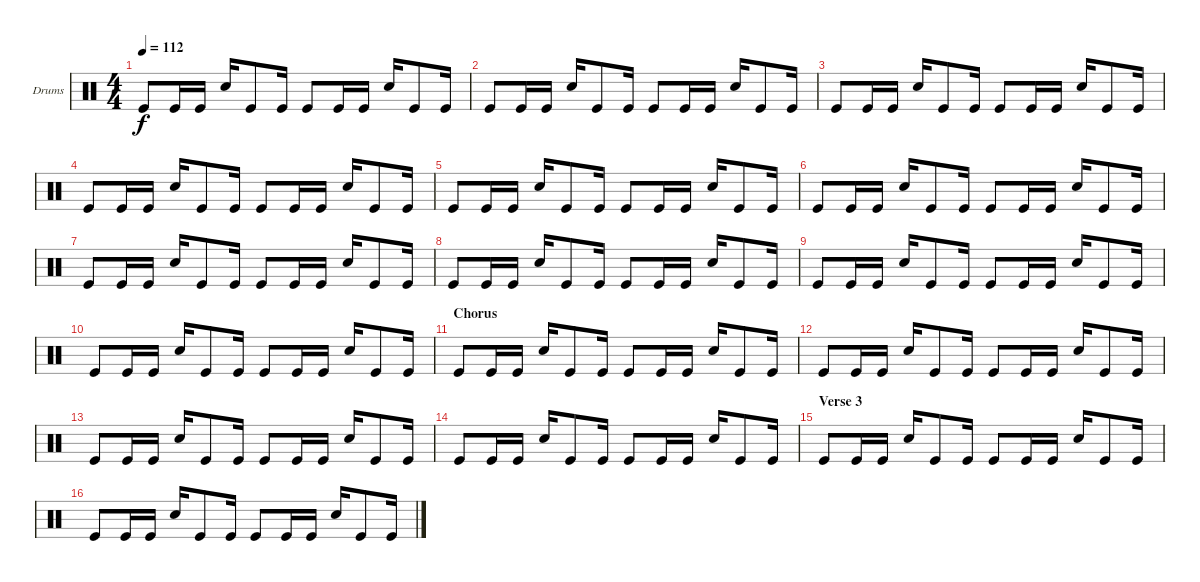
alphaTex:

\bracketExtendMode groupsimilarinstruments
\firstSystemTrackNameOrientation horizontal
\otherSystemsTrackNameOrientation horizontal
\track ("Drumkit" "Drums") {instrument percussion}
\staff {score}
\articulation defaults
\ts (4 4)
\tempo 112
\clef neutral
\ks c "Kick (hit)".8{dy f} "Kick (hit)".16 "Kick (hit)".16 "Snare (hit) 2".16 "Kick (hit)".8 "Kick (hit)".16 "Kick (hit)".8 "Kick (hit)".16 "Kick (hit)".16 "Snare (hit) 2".16 "Kick (hit)".8 "Kick (hit)".16
|
"Kick (hit)".8 "Kick (hit)".16 "Kick (hit)".16 "Snare (hit) 2".16 "Kick (hit)".8 "Kick (hit)".16 "Kick (hit)".8 "Kick (hit)".16 "Kick (hit)".16 "Snare (hit) 2".16 "Kick (hit)".8 "Kick (hit)".16 |
"Kick (hit)".8 "Kick (hit)".16 "Kick (hit)".16 "Snare (hit) 2".16 "Kick (hit)".8 "Kick (hit)".16 "Kick (hit)".8 "Kick (hit)".16 "Kick (hit)".16 "Snare (hit) 2".16 "Kick (hit)".8 "Kick (hit)".16 |
"Kick (hit)".8 "Kick (hit)".16 "Kick (hit)".16 "Snare (hit) 2".16 "Kick (hit)".8 "Kick (hit)".16 "Kick (hit)".8 "Kick (hit)".16 "Kick (hit)".16 "Snare (hit) 2".16 "Kick (hit)".8 "Kick (hit)".16 |
"Kick (hit)".8 "Kick (hit)".16 "Kick (hit)".16 "Snare (hit) 2".16 "Kick (hit)".8 "Kick (hit)".16 "Kick (hit)".8 "Kick (hit)".16 "Kick (hit)".16 "Snare (hit) 2".16 "Kick (hit)".8 "Kick (hit)".16 |
"Kick (hit)".8 "Kick (hit)".16 "Kick (hit)".16 "Snare (hit) 2".16 "Kick (hit)".8 "Kick (hit)".16 "Kick (hit)".8 "Kick (hit)".16 "Kick (hit)".16 "Snare (hit) 2".16 "Kick (hit)".8 "Kick (hit)".16 |
"Kick (hit)".8 "Kick (hit)".16 "Kick (hit)".16 "Snare (hit) 2".16 "Kick (hit)".8 "Kick (hit)".16 "Kick (hit)".8 "Kick (hit)".16 "Kick (hit)".16 "Snare (hit) 2".16 "Kick (hit)".8 "Kick (hit)".16 |
"Kick (hit)".8 "Kick (hit)".16 "Kick (hit)".16 "Snare (hit) 2".16 "Kick (hit)".8 "Kick (hit)".16 "Kick (hit)".8 "Kick (hit)".16 "Kick (hit)".16 "Snare (hit) 2".16 "Kick (hit)".8 "Kick (hit)".16 |
"Kick (hit)".8 "Kick (hit)".16 "Kick (hit)".16 "Snare (hit) 2".16 "Kick (hit)".8 "Kick (hit)".16 "Kick (hit)".8 "Kick (hit)".16 "Kick (hit)".16 "Snare (hit) 2".16 "Kick (hit)".8 "Kick (hit)".16 |
"Kick (hit)".8 "Kick (hit)".16 "Kick (hit)".16 "Snare (hit) 2".16 "Kick (hit)".8 "Kick (hit)".16 "Kick (hit)".8 "Kick (hit)".16 "Kick (hit)".16 "Snare (hit) 2".16 "Kick (hit)".8 "Kick (hit)".16 |
\section ("" "Chorus")
"Kick (hit)".8 "Kick (hit)".16 "Kick (hit)".16 "Snare (hit) 2".16 "Kick (hit)".8 "Kick (hit)".16 "Kick (hit)".8 "Kick (hit)".16 "Kick (hit)".16 "Snare (hit) 2".16 "Kick (hit)".8 "Kick (hit)".16 |
"Kick (hit)".8 "Kick (hit)".16 "Kick (hit)".16 "Snare (hit) 2".16 "Kick (hit)".8 "Kick (hit)".16 "Kick (hit)".8 "Kick (hit)".16 "Kick (hit)".16 "Snare (hit) 2".16 "Kick (hit)".8 "Kick (hit)".16 |
"Kick (hit)".8 "Kick (hit)".16 "Kick (hit)".16 "Snare (hit) 2".16 "Kick (hit)".8 "Kick (hit)".16 "Kick (hit)".8 "Kick (hit)".16 "Kick (hit)".16 "Snare (hit) 2".16 "Kick (hit)".8 "Kick (hit)".16 |
"Kick (hit)".8 "Kick (hit)".16 "Kick (hit)".16 "Snare (hit) 2".16 "Kick (hit)".8 "Kick (hit)".16 "Kick (hit)".8 "Kick (hit)".16 "Kick (hit)".16 "Snare (hit) 2".16 "Kick (hit)".8 "Kick (hit)".16 |
\section ("" "Verse 3")
"Kick (hit)".8 "Kick (hit)".16 "Kick (hit)".16 "Snare (hit) 2".16 "Kick (hit)".8 "Kick (hit)".16 "Kick (hit)".8 "Kick (hit)".16 "Kick (hit)".16 "Snare (hit) 2".16 "Kick (hit)".8 "Kick (hit)".16 |
"Kick (hit)".8 "Kick (hit)".16 "Kick (hit)".16 "Snare (hit) 2".16 "Kick (hit)".8 "Kick (hit)".16 "Kick (hit)".8 "Kick (hit)".16 "Kick (hit)".16 "Snare (hit) 2".16 "Kick (hit)".8 "Kick (hit)".16
